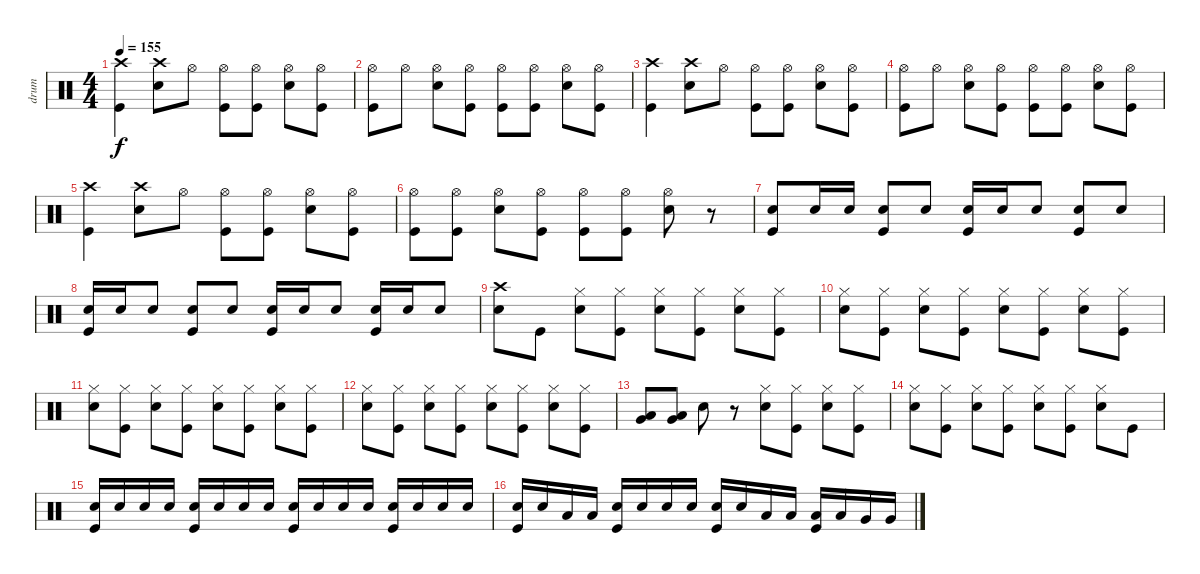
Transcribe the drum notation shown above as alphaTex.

\track ("drum" "drum") {instrument percussion}
\staff {score}
\articulation defaults
\ts (4 4)
\tempo 155
\clef neutral
\ks c
("Crash high (hit)" "Kick (hit)").4{dy f} ("Crash high (hit)" "Snare (hit) 2").8 "Hi-Hat (open)".8 ("Hi-Hat (open)" "Kick (hit)").8 ("Hi-Hat (open)" "Kick (hit)").8 ("Hi-Hat (open)" "Snare (hit) 2").8 ("Hi-Hat (open)" "Kick (hit)").8 |
("Hi-Hat (open)" "Kick (hit)").8 "Hi-Hat (open)".8 ("Hi-Hat (open)" "Snare (hit) 2").8 ("Hi-Hat (open)" "Kick (hit)").8 ("Hi-Hat (open)" "Kick (hit)").8 ("Hi-Hat (open)" "Kick (hit)").8 ("Hi-Hat (open)" "Snare (hit) 2").8 ("Hi-Hat (open)" "Kick (hit)").8 |
("Crash high (hit)" "Kick (hit)").4 ("Crash high (hit)" "Snare (hit) 2").8 "Hi-Hat (open)".8 ("Hi-Hat (open)" "Kick (hit)").8 ("Hi-Hat (open)" "Kick (hit)").8 ("Hi-Hat (open)" "Snare (hit) 2").8 ("Hi-Hat (open)" "Kick (hit)").8 |
("Hi-Hat (open)" "Kick (hit)").8 "Hi-Hat (open)".8 ("Hi-Hat (open)" "Snare (hit) 2").8 ("Hi-Hat (open)" "Kick (hit)").8 ("Hi-Hat (open)" "Kick (hit)").8 ("Hi-Hat (open)" "Kick (hit)").8 ("Hi-Hat (open)" "Snare (hit) 2").8 ("Hi-Hat (open)" "Kick (hit)").8 |
("Crash high (hit)" "Kick (hit)").4 ("Crash high (hit)" "Snare (hit) 2").8 "Hi-Hat (open)".8 ("Hi-Hat (open)" "Kick (hit)").8 ("Hi-Hat (open)" "Kick (hit)").8 ("Hi-Hat (open)" "Snare (hit) 2").8 ("Hi-Hat (open)" "Kick (hit)").8 |
("Hi-Hat (open)" "Kick (hit)").8 ("Hi-Hat (open)" "Kick (hit)").8 ("Hi-Hat (open)" "Snare (hit) 2").8 ("Hi-Hat (open)" "Kick (hit)").8 ("Hi-Hat (open)" "Kick (hit)").8 ("Hi-Hat (open)" "Kick (hit)").8 ("Hi-Hat (open)" "Snare (hit) 2").8 r.8 |
("Snare (hit) 2" "Kick (hit)").8 "Snare (hit) 2".16 "Snare (hit) 2".16 ("Snare (hit) 2" "Kick (hit)").8 "Snare (hit) 2".8 ("Snare (hit) 2" "Kick (hit)").16 "Snare (hit) 2".16 "Snare (hit) 2".8 ("Snare (hit) 2" "Kick (hit)").8 "Snare (hit) 2".8 |
("Snare (hit) 2" "Kick (hit)").16 "Snare (hit) 2".16 "Snare (hit) 2".8 ("Snare (hit) 2" "Kick (hit)").8 "Snare (hit) 2".8 ("Snare (hit) 2" "Kick (hit)").16 "Snare (hit) 2".16 "Snare (hit) 2".8 ("Snare (hit) 2" "Kick (hit)").16 "Snare (hit) 2".16 "Snare (hit) 2".8 |
("Crash high (hit)" "Snare (hit) 2").8 "Kick (hit)".8 ("Hi-Hat (closed)" "Snare (hit) 2").8 ("Hi-Hat (closed)" "Kick (hit)").8 ("Hi-Hat (closed)" "Snare (hit) 2").8 ("Hi-Hat (closed)" "Kick (hit)").8 ("Hi-Hat (closed)" "Snare (hit) 2").8 ("Hi-Hat (closed)" "Kick (hit)").8 |
("Hi-Hat (closed)" "Snare (hit) 2").8 ("Hi-Hat (closed)" "Kick (hit)").8 ("Hi-Hat (closed)" "Snare (hit) 2").8 ("Hi-Hat (closed)" "Kick (hit)").8 ("Hi-Hat (closed)" "Snare (hit) 2").8 ("Hi-Hat (closed)" "Kick (hit)").8 ("Hi-Hat (closed)" "Snare (hit) 2").8 ("Hi-Hat (closed)" "Kick (hit)").8 |
("Hi-Hat (closed)" "Snare (hit) 2").8 ("Hi-Hat (closed)" "Kick (hit)").8 ("Hi-Hat (closed)" "Snare (hit) 2").8 ("Hi-Hat (closed)" "Kick (hit)").8 ("Hi-Hat (closed)" "Snare (hit) 2").8 ("Hi-Hat (closed)" "Kick (hit)").8 ("Hi-Hat (closed)" "Snare (hit) 2").8 ("Hi-Hat (closed)" "Kick (hit)").8 |
("Hi-Hat (closed)" "Snare (hit) 2").8 ("Hi-Hat (closed)" "Kick (hit)").8 ("Hi-Hat (closed)" "Snare (hit) 2").8 ("Hi-Hat (closed)" "Kick (hit)").8 ("Hi-Hat (closed)" "Snare (hit) 2").8 ("Hi-Hat (closed)" "Kick (hit)").8 ("Hi-Hat (closed)" "Snare (hit) 2").8 ("Hi-Hat (closed)" "Kick (hit)").8 |
("Low Tom (hit)" "Very Low Tom (hit)").8 ("Low Tom (hit)" "Very Low Tom (hit)").8 "Snare (hit) 2".8 r.8 ("Hi-Hat (closed)" "Snare (hit) 2").8 ("Hi-Hat (closed)" "Kick (hit)").8 ("Hi-Hat (closed)" "Snare (hit) 2").8 ("Hi-Hat (closed)" "Kick (hit)").8 |
("Hi-Hat (closed)" "Snare (hit) 2").8 ("Hi-Hat (closed)" "Kick (hit)").8 ("Hi-Hat (closed)" "Snare (hit) 2").8 ("Hi-Hat (closed)" "Kick (hit)").8 ("Hi-Hat (closed)" "Snare (hit) 2").8 ("Hi-Hat (closed)" "Kick (hit)").8 ("Hi-Hat (closed)" "Snare (hit) 2").8 "Kick (hit)".8 |
("Snare (hit) 2" "Kick (hit)").16 "Snare (hit) 2".16 "Snare (hit) 2".16 "Snare (hit) 2".16 ("Snare (hit) 2" "Kick (hit)").16 "Snare (hit) 2".16 "Snare (hit) 2".16 "Snare (hit) 2".16 ("Snare (hit) 2" "Kick (hit)").16 "Snare (hit) 2".16 "Snare (hit) 2".16 "Snare (hit) 2".16 ("Snare (hit) 2" "Kick (hit)").16 "Snare (hit) 2".16 "Snare (hit) 2".16 "Snare (hit) 2".16 |
("Snare (hit) 2" "Kick (hit)").16 "Snare (hit) 2".16 "Low Tom (hit)".16 "Low Tom (hit)".16 ("Snare (hit) 2" "Kick (hit)").16 "Snare (hit) 2".16 "Snare (hit) 2".16 "Snare (hit) 2".16 ("Snare (hit) 2" "Kick (hit)").16 "Snare (hit) 2".16 "Low Tom (hit)".16 "Low Tom (hit)".16 ("Low Tom (hit)" "Kick (hit)").16 "Low Tom (hit)".16 "Very Low Tom (hit)".16 "Very Low Tom (hit)".16
